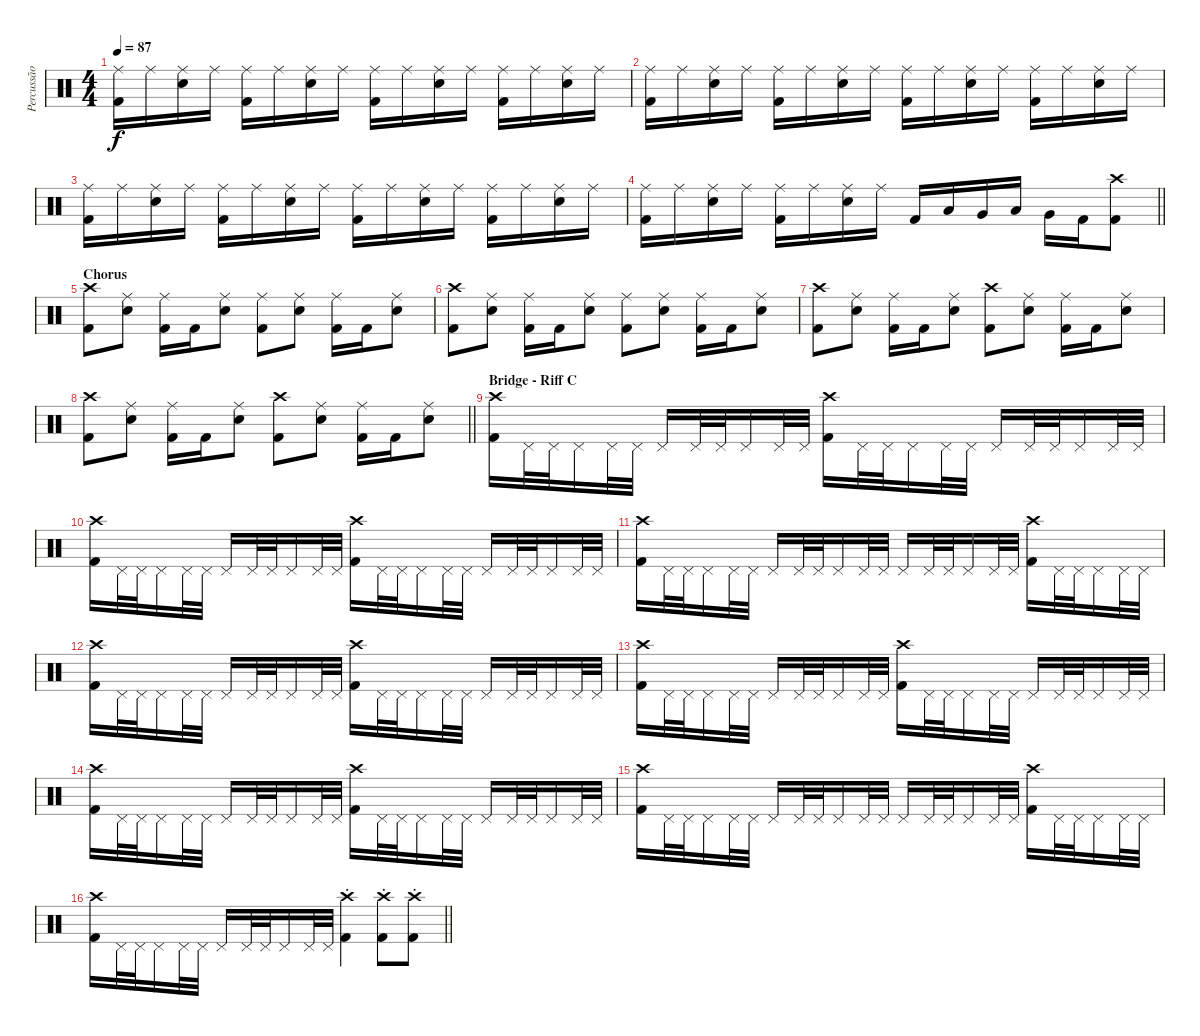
\track ("Percussão" "Percussão") {instrument percussion}
\staff {score}
\articulation defaults
\ts (4 4)
\tempo 87
\clef neutral
\ks c
("Ride (middle)" "Kick (hit) 2").16{dy f} "Ride (middle)".16 ("Ride (middle)" "Electric Snare (hit)").16 "Ride (middle)".16 ("Ride (middle)" "Kick (hit) 2").16 "Ride (middle)".16 ("Ride (middle)" "Electric Snare (hit)").16 "Ride (middle)".16 ("Ride (middle)" "Kick (hit) 2").16 "Ride (middle)".16 ("Ride (middle)" "Electric Snare (hit)").16 "Ride (middle)".16 ("Ride (middle)" "Kick (hit) 2").16 "Ride (middle)".16 ("Ride (middle)" "Electric Snare (hit)").16 "Ride (middle)".16 |
("Ride (middle)" "Kick (hit) 2").16 "Ride (middle)".16 ("Ride (middle)" "Electric Snare (hit)").16 "Ride (middle)".16 ("Ride (middle)" "Kick (hit) 2").16 "Ride (middle)".16 ("Ride (middle)" "Electric Snare (hit)").16 "Ride (middle)".16 ("Ride (middle)" "Kick (hit) 2").16 "Ride (middle)".16 ("Ride (middle)" "Electric Snare (hit)").16 "Ride (middle)".16 ("Ride (middle)" "Kick (hit) 2").16 "Ride (middle)".16 ("Ride (middle)" "Electric Snare (hit)").16 "Ride (middle)".16 |
("Ride (middle)" "Kick (hit) 2").16 "Ride (middle)".16 ("Ride (middle)" "Electric Snare (hit)").16 "Ride (middle)".16 ("Ride (middle)" "Kick (hit) 2").16 "Ride (middle)".16 ("Ride (middle)" "Electric Snare (hit)").16 "Ride (middle)".16 ("Ride (middle)" "Kick (hit) 2").16 "Ride (middle)".16 ("Ride (middle)" "Electric Snare (hit)").16 "Ride (middle)".16 ("Ride (middle)" "Kick (hit) 2").16 "Ride (middle)".16 ("Ride (middle)" "Electric Snare (hit)").16 "Ride (middle)".16 |
\barLineRight lightlight
("Ride (middle)" "Kick (hit) 2").16 "Ride (middle)".16 ("Ride (middle)" "Electric Snare (hit)").16 "Ride (middle)".16 ("Ride (middle)" "Kick (hit) 2").16 "Ride (middle)".16 ("Ride (middle)" "Electric Snare (hit)").16 "Ride (middle)".16 "Kick (hit) 2".16 "Low Tom (hit)".16 "Very Low Tom (hit)".16 "Low Floor Tom (hit)".16 "Very Low Tom (hit)".16 "Kick (hit) 2".16 ("Crash high (hit)" "Kick (hit) 2").8 |
\section ("" "Chorus ")
("Crash high (hit)" "Kick (hit) 2").8 ("Ride (middle)" "Electric Snare (hit)").8 ("Ride (middle)" "Kick (hit) 2").16 "Kick (hit) 2".16 ("Ride (middle)" "Electric Snare (hit)").8 ("Ride (middle)" "Kick (hit) 2").8 ("Ride (middle)" "Electric Snare (hit)").8 ("Ride (middle)" "Kick (hit) 2").16 "Kick (hit) 2".16 ("Ride (middle)" "Electric Snare (hit)").8 |
("Crash high (hit)" "Kick (hit) 2").8 ("Ride (middle)" "Electric Snare (hit)").8 ("Ride (middle)" "Kick (hit) 2").16 "Kick (hit) 2".16 ("Ride (middle)" "Electric Snare (hit)").8 ("Ride (middle)" "Kick (hit) 2").8 ("Ride (middle)" "Electric Snare (hit)").8 ("Ride (middle)" "Kick (hit) 2").16 "Kick (hit) 2".16 ("Ride (middle)" "Electric Snare (hit)").8 |
("Crash high (hit)" "Kick (hit) 2").8 ("Ride (middle)" "Electric Snare (hit)").8 ("Ride (middle)" "Kick (hit) 2").16 "Kick (hit) 2".16 ("Ride (middle)" "Electric Snare (hit)").8 ("Crash high (hit)" "Kick (hit) 2").8 ("Ride (middle)" "Electric Snare (hit)").8 ("Ride (middle)" "Kick (hit) 2").16 "Kick (hit) 2".16 ("Ride (middle)" "Electric Snare (hit)").8 |
\barLineRight lightlight
("Crash high (hit)" "Kick (hit) 2").8 ("Ride (middle)" "Electric Snare (hit)").8 ("Ride (middle)" "Kick (hit) 2").16 "Kick (hit) 2".16 ("Ride (middle)" "Electric Snare (hit)").8 ("Crash high (hit)" "Kick (hit) 2").8 ("Ride (middle)" "Electric Snare (hit)").8 ("Ride (middle)" "Kick (hit) 2").16 "Kick (hit) 2".16 ("Ride (middle)" "Electric Snare (hit)").8 |
\section ("" "Bridge - Riff C")
("Crash high (hit)" "Kick (hit) 2").16 "Pedal Hi-Hat (hit)".32 "Pedal Hi-Hat (hit)".32 "Pedal Hi-Hat (hit)".16 "Pedal Hi-Hat (hit)".32 "Pedal Hi-Hat (hit)".32 "Pedal Hi-Hat (hit)".16 "Pedal Hi-Hat (hit)".32 "Pedal Hi-Hat (hit)".32 "Pedal Hi-Hat (hit)".16 "Pedal Hi-Hat (hit)".32 "Pedal Hi-Hat (hit)".32 ("Crash high (hit)" "Kick (hit) 2").16 "Pedal Hi-Hat (hit)".32 "Pedal Hi-Hat (hit)".32 "Pedal Hi-Hat (hit)".16 "Pedal Hi-Hat (hit)".32 "Pedal Hi-Hat (hit)".32 "Pedal Hi-Hat (hit)".16 "Pedal Hi-Hat (hit)".32 "Pedal Hi-Hat (hit)".32 "Pedal Hi-Hat (hit)".16 "Pedal Hi-Hat (hit)".32 "Pedal Hi-Hat (hit)".32 |
("Crash high (hit)" "Kick (hit) 2").16 "Pedal Hi-Hat (hit)".32 "Pedal Hi-Hat (hit)".32 "Pedal Hi-Hat (hit)".16 "Pedal Hi-Hat (hit)".32 "Pedal Hi-Hat (hit)".32 "Pedal Hi-Hat (hit)".16 "Pedal Hi-Hat (hit)".32 "Pedal Hi-Hat (hit)".32 "Pedal Hi-Hat (hit)".16 "Pedal Hi-Hat (hit)".32 "Pedal Hi-Hat (hit)".32 ("Crash high (hit)" "Kick (hit) 2").16 "Pedal Hi-Hat (hit)".32 "Pedal Hi-Hat (hit)".32 "Pedal Hi-Hat (hit)".16 "Pedal Hi-Hat (hit)".32 "Pedal Hi-Hat (hit)".32 "Pedal Hi-Hat (hit)".16 "Pedal Hi-Hat (hit)".32 "Pedal Hi-Hat (hit)".32 "Pedal Hi-Hat (hit)".16 "Pedal Hi-Hat (hit)".32 "Pedal Hi-Hat (hit)".32 |
("Crash high (hit)" "Kick (hit) 2").16 "Pedal Hi-Hat (hit)".32 "Pedal Hi-Hat (hit)".32 "Pedal Hi-Hat (hit)".16 "Pedal Hi-Hat (hit)".32 "Pedal Hi-Hat (hit)".32 "Pedal Hi-Hat (hit)".16 "Pedal Hi-Hat (hit)".32 "Pedal Hi-Hat (hit)".32 "Pedal Hi-Hat (hit)".16 "Pedal Hi-Hat (hit)".32 "Pedal Hi-Hat (hit)".32 "Pedal Hi-Hat (hit)".16 "Pedal Hi-Hat (hit)".32 "Pedal Hi-Hat (hit)".32 "Pedal Hi-Hat (hit)".16 "Pedal Hi-Hat (hit)".32 "Pedal Hi-Hat (hit)".32 ("Crash high (hit)" "Kick (hit) 2").16 "Pedal Hi-Hat (hit)".32 "Pedal Hi-Hat (hit)".32 "Pedal Hi-Hat (hit)".16 "Pedal Hi-Hat (hit)".32 "Pedal Hi-Hat (hit)".32 |
("Crash high (hit)" "Kick (hit) 2").16 "Pedal Hi-Hat (hit)".32 "Pedal Hi-Hat (hit)".32 "Pedal Hi-Hat (hit)".16 "Pedal Hi-Hat (hit)".32 "Pedal Hi-Hat (hit)".32 "Pedal Hi-Hat (hit)".16 "Pedal Hi-Hat (hit)".32 "Pedal Hi-Hat (hit)".32 "Pedal Hi-Hat (hit)".16 "Pedal Hi-Hat (hit)".32 "Pedal Hi-Hat (hit)".32 ("Crash high (hit)" "Kick (hit) 2").16 "Pedal Hi-Hat (hit)".32 "Pedal Hi-Hat (hit)".32 "Pedal Hi-Hat (hit)".16 "Pedal Hi-Hat (hit)".32 "Pedal Hi-Hat (hit)".32 "Pedal Hi-Hat (hit)".16 "Pedal Hi-Hat (hit)".32 "Pedal Hi-Hat (hit)".32 "Pedal Hi-Hat (hit)".16 "Pedal Hi-Hat (hit)".32 "Pedal Hi-Hat (hit)".32 |
("Crash high (hit)" "Kick (hit) 2").16 "Pedal Hi-Hat (hit)".32 "Pedal Hi-Hat (hit)".32 "Pedal Hi-Hat (hit)".16 "Pedal Hi-Hat (hit)".32 "Pedal Hi-Hat (hit)".32 "Pedal Hi-Hat (hit)".16 "Pedal Hi-Hat (hit)".32 "Pedal Hi-Hat (hit)".32 "Pedal Hi-Hat (hit)".16 "Pedal Hi-Hat (hit)".32 "Pedal Hi-Hat (hit)".32 ("Crash high (hit)" "Kick (hit) 2").16 "Pedal Hi-Hat (hit)".32 "Pedal Hi-Hat (hit)".32 "Pedal Hi-Hat (hit)".16 "Pedal Hi-Hat (hit)".32 "Pedal Hi-Hat (hit)".32 "Pedal Hi-Hat (hit)".16 "Pedal Hi-Hat (hit)".32 "Pedal Hi-Hat (hit)".32 "Pedal Hi-Hat (hit)".16 "Pedal Hi-Hat (hit)".32 "Pedal Hi-Hat (hit)".32 |
("Crash high (hit)" "Kick (hit) 2").16 "Pedal Hi-Hat (hit)".32 "Pedal Hi-Hat (hit)".32 "Pedal Hi-Hat (hit)".16 "Pedal Hi-Hat (hit)".32 "Pedal Hi-Hat (hit)".32 "Pedal Hi-Hat (hit)".16 "Pedal Hi-Hat (hit)".32 "Pedal Hi-Hat (hit)".32 "Pedal Hi-Hat (hit)".16 "Pedal Hi-Hat (hit)".32 "Pedal Hi-Hat (hit)".32 ("Crash high (hit)" "Kick (hit) 2").16 "Pedal Hi-Hat (hit)".32 "Pedal Hi-Hat (hit)".32 "Pedal Hi-Hat (hit)".16 "Pedal Hi-Hat (hit)".32 "Pedal Hi-Hat (hit)".32 "Pedal Hi-Hat (hit)".16 "Pedal Hi-Hat (hit)".32 "Pedal Hi-Hat (hit)".32 "Pedal Hi-Hat (hit)".16 "Pedal Hi-Hat (hit)".32 "Pedal Hi-Hat (hit)".32 |
("Crash high (hit)" "Kick (hit) 2").16 "Pedal Hi-Hat (hit)".32 "Pedal Hi-Hat (hit)".32 "Pedal Hi-Hat (hit)".16 "Pedal Hi-Hat (hit)".32 "Pedal Hi-Hat (hit)".32 "Pedal Hi-Hat (hit)".16 "Pedal Hi-Hat (hit)".32 "Pedal Hi-Hat (hit)".32 "Pedal Hi-Hat (hit)".16 "Pedal Hi-Hat (hit)".32 "Pedal Hi-Hat (hit)".32 "Pedal Hi-Hat (hit)".16 "Pedal Hi-Hat (hit)".32 "Pedal Hi-Hat (hit)".32 "Pedal Hi-Hat (hit)".16 "Pedal Hi-Hat (hit)".32 "Pedal Hi-Hat (hit)".32 ("Crash high (hit)" "Kick (hit) 2").16 "Pedal Hi-Hat (hit)".32 "Pedal Hi-Hat (hit)".32 "Pedal Hi-Hat (hit)".16 "Pedal Hi-Hat (hit)".32 "Pedal Hi-Hat (hit)".32 |
\barLineRight lightlight
("Crash high (hit)" "Kick (hit) 2").16 "Pedal Hi-Hat (hit)".32 "Pedal Hi-Hat (hit)".32 "Pedal Hi-Hat (hit)".16 "Pedal Hi-Hat (hit)".32 "Pedal Hi-Hat (hit)".32 "Pedal Hi-Hat (hit)".16 "Pedal Hi-Hat (hit)".32 "Pedal Hi-Hat (hit)".32 "Pedal Hi-Hat (hit)".16 "Pedal Hi-Hat (hit)".32 "Pedal Hi-Hat (hit)".32 ("Crash high (hit)"{st} "Kick (hit) 2"{st}).4 ("Crash high (hit)"{st} "Kick (hit) 2").8 ("Crash high (hit)"{st} "Kick (hit) 2").8
